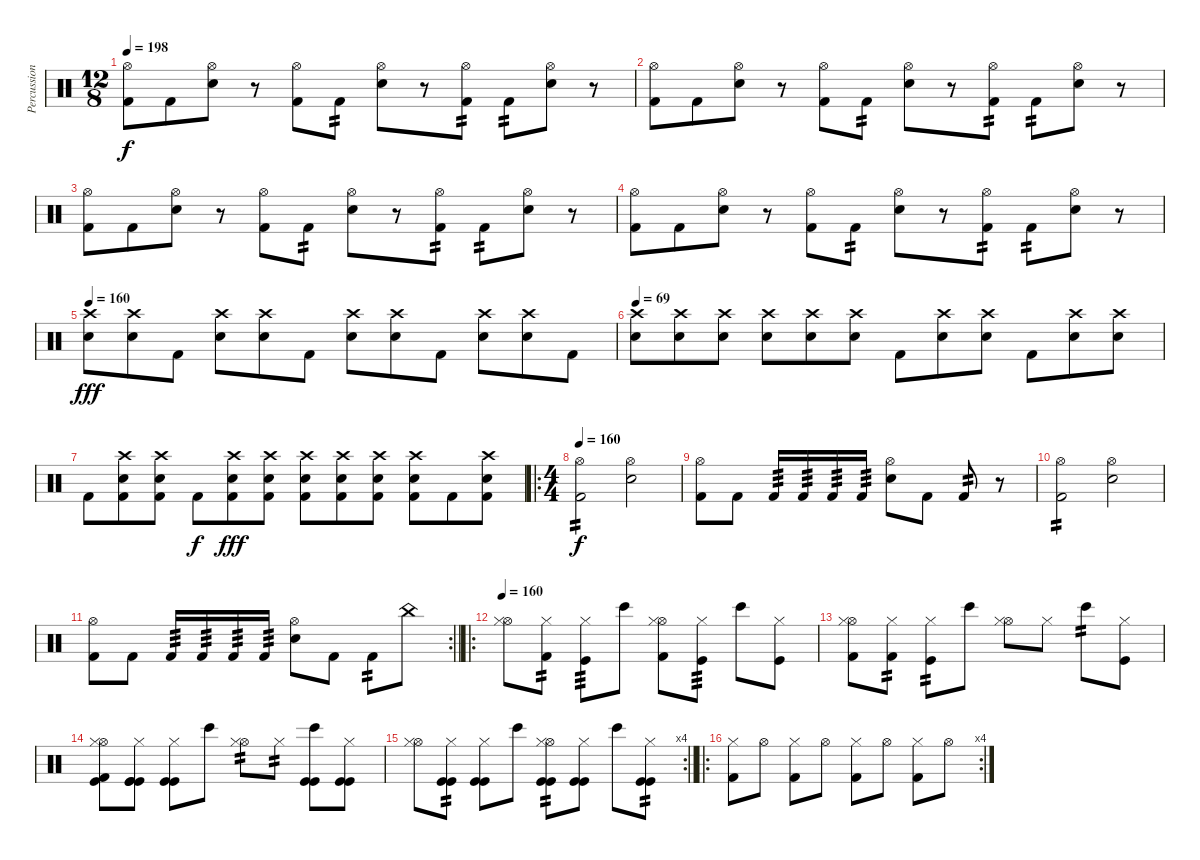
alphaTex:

\track ("Percussion" "Percussion") {instrument percussion}
\staff {score}
\articulation defaults
\ts (12 8)
\tempo 198
\clef neutral
\ks c
("Hi-Hat (open)" "Kick (hit) 2").8{dy f} "Kick (hit) 2".8 ("Hi-Hat (open)" "Snare (hit) 2").8 r.8 ("Hi-Hat (open)" "Kick (hit) 2").8 "Kick (hit) 2".8{tp 2} ("Hi-Hat (open)" "Snare (hit) 2").8 r.8 ("Hi-Hat (open)" "Kick (hit) 2").8{tp 2} "Kick (hit) 2".8{tp 2} ("Hi-Hat (open)" "Snare (hit) 2").8 r.8 |
("Hi-Hat (open)" "Kick (hit) 2").8 "Kick (hit) 2".8 ("Hi-Hat (open)" "Snare (hit) 2").8 r.8 ("Hi-Hat (open)" "Kick (hit) 2").8 "Kick (hit) 2".8{tp 2} ("Hi-Hat (open)" "Snare (hit) 2").8 r.8 ("Hi-Hat (open)" "Kick (hit) 2").8{tp 2} "Kick (hit) 2".8{tp 2} ("Hi-Hat (open)" "Snare (hit) 2").8 r.8 |
("Hi-Hat (open)" "Kick (hit) 2").8 "Kick (hit) 2".8 ("Hi-Hat (open)" "Snare (hit) 2").8 r.8 ("Hi-Hat (open)" "Kick (hit) 2").8 "Kick (hit) 2".8{tp 2} ("Hi-Hat (open)" "Snare (hit) 2").8 r.8 ("Hi-Hat (open)" "Kick (hit) 2").8{tp 2} "Kick (hit) 2".8{tp 2} ("Hi-Hat (open)" "Snare (hit) 2").8 r.8 |
("Hi-Hat (open)" "Kick (hit) 2").8 "Kick (hit) 2".8 ("Hi-Hat (open)" "Snare (hit) 2").8 r.8 ("Hi-Hat (open)" "Kick (hit) 2").8 "Kick (hit) 2".8{tp 2} ("Hi-Hat (open)" "Snare (hit) 2").8 r.8 ("Hi-Hat (open)" "Kick (hit) 2").8{tp 2} "Kick (hit) 2".8{tp 2} ("Hi-Hat (open)" "Snare (hit) 2").8 r.8 |
\tempo 160
("Crash high (hit)" "Snare (hit) 2").8{dy fff} ("Crash high (hit)" "Snare (hit) 2").8 "Kick (hit) 2".8 ("Crash high (hit)" "Snare (hit) 2").8 ("Crash high (hit)" "Snare (hit) 2").8 "Kick (hit) 2".8 ("Crash high (hit)" "Snare (hit) 2").8 ("Crash high (hit)" "Snare (hit) 2").8 "Kick (hit) 2".8 ("Crash high (hit)" "Snare (hit) 2").8 ("Crash high (hit)" "Snare (hit) 2").8 "Kick (hit) 2".8 |
\tempo 69
("Crash high (hit)" "Snare (hit) 2").8 ("Crash high (hit)" "Snare (hit) 2").8 ("Crash high (hit)" "Snare (hit) 2").8 ("Crash high (hit)" "Snare (hit) 2").8 ("Crash high (hit)" "Snare (hit) 2").8 ("Crash high (hit)" "Snare (hit) 2").8 "Kick (hit) 2".8 ("Crash high (hit)" "Snare (hit) 2").8 ("Crash high (hit)" "Snare (hit) 2").8 "Kick (hit) 2".8 ("Crash high (hit)" "Snare (hit) 2").8 ("Crash high (hit)" "Snare (hit) 2").8 |
"Kick (hit) 2".8 ("Crash high (hit)" "Snare (hit) 2" "Kick (hit) 2").8 ("Crash high (hit)" "Snare (hit) 2" "Kick (hit) 2").8 "Kick (hit) 2".8{dy f} ("Crash high (hit)" "Snare (hit) 2" "Kick (hit) 2").8{dy fff} ("Crash high (hit)" "Snare (hit) 2" "Kick (hit) 2").8 ("Crash high (hit)" "Snare (hit) 2" "Kick (hit) 2").8 ("Crash high (hit)" "Snare (hit) 2" "Kick (hit) 2").8 ("Crash high (hit)" "Snare (hit) 2" "Kick (hit) 2").8 ("Crash high (hit)" "Snare (hit) 2" "Kick (hit) 2").8 "Kick (hit) 2".8 ("Crash high (hit)" "Snare (hit) 2" "Kick (hit) 2").8 |
\ro
\ts (4 4)
\tempo 160
("Hi-Hat (open)" "Kick (hit) 2").2{tp 2 dy f} ("Hi-Hat (open)" "Snare (hit) 2").2 |
("Hi-Hat (open)" "Kick (hit) 2").8 "Kick (hit) 2".8 "Kick (hit) 2".16{tp 3} "Kick (hit) 2".16{tp 3} "Kick (hit) 2".16{tp 3} "Kick (hit) 2".16{tp 3} ("Hi-Hat (open)" "Snare (hit) 2").8 "Kick (hit) 2".8 "Kick (hit) 2".8{tp 2} r.8 |
("Hi-Hat (open)" "Kick (hit) 2").2{tp 2} ("Hi-Hat (open)" "Snare (hit) 2").2 |
\rc 2
\barLineRight lightlight
("Hi-Hat (open)" "Kick (hit) 2").8 "Kick (hit) 2".8 "Kick (hit) 2".16{tp 3} "Kick (hit) 2".16{tp 3} "Kick (hit) 2".16{tp 3} "Kick (hit) 2".16{tp 3} ("Hi-Hat (open)" "Snare (hit) 2").8 "Kick (hit) 2".8 "Kick (hit) 2".8{tp 2} "China (hit)".8 |
\ro
\tempo 160
("Hi-Hat (open)" "Hi-Hat (closed)").8{volume 16} ("Hi-Hat (closed)" "Kick (hit) 2").8{tp 2} ("Hi-Hat (closed)" "Kick (hit)").8{tp 3} "Bongo High (hit)".8 ("Hi-Hat (open)" "Hi-Hat (closed)" "Kick (hit) 2").8 ("Hi-Hat (closed)" "Kick (hit)").8{tp 3} "Bongo High (hit)".8 ("Hi-Hat (closed)" "Kick (hit)").8 |
("Hi-Hat (open)" "Hi-Hat (closed)" "Kick (hit) 2").8 ("Hi-Hat (closed)" "Kick (hit) 2").8{tp 2} ("Hi-Hat (closed)" "Kick (hit)").8{tp 2} "Bongo High (hit)".8 ("Hi-Hat (open)" "Hi-Hat (closed)").8 "Hi-Hat (closed)".8 "Bongo High (hit)".8{tp 2} ("Hi-Hat (closed)" "Kick (hit)").8 |
("Hi-Hat (open)" "Kick (hit)" "Hi-Hat (closed)" "Kick (hit) 2").8 ("Kick (hit)" "Kick (hit)" "Hi-Hat (closed)" "Kick (hit)").8 ("Kick (hit)" "Hi-Hat (closed)" "Kick (hit)").8 "Bongo High (hit)".8 ("Hi-Hat (open)" "Hi-Hat (closed)").8{tp 2} "Hi-Hat (closed)".8{tp 2} ("Kick (hit)" "Bongo High (hit)" "Kick (hit)").8 ("Kick (hit)" "Hi-Hat (closed)" "Kick (hit)").8 |
\rc 4
\barLineRight lightlight
("Hi-Hat (open)" "Hi-Hat (closed)").8 ("Kick (hit)" "Hi-Hat (closed)" "Kick (hit)").8{tp 2} ("Kick (hit)" "Hi-Hat (closed)" "Kick (hit)").8 "Bongo High (hit)".8 ("Hi-Hat (open)" "Kick (hit)" "Hi-Hat (closed)" "Kick (hit)").8{tp 2} ("Kick (hit)" "Hi-Hat (closed)" "Kick (hit)").8 "Bongo High (hit)".8 ("Kick (hit)" "Hi-Hat (closed)" "Kick (hit)").8{tp 2} |
\ro
\rc 4
("Hi-Hat (closed)" "Kick (hit) 2").8{volume 3} "Hi-Hat (open)".8 ("Hi-Hat (closed)" "Kick (hit) 2").8 "Hi-Hat (open)".8 ("Hi-Hat (closed)" "Kick (hit) 2").8 "Hi-Hat (open)".8 ("Hi-Hat (closed)" "Kick (hit) 2").8 "Hi-Hat (open)".8
